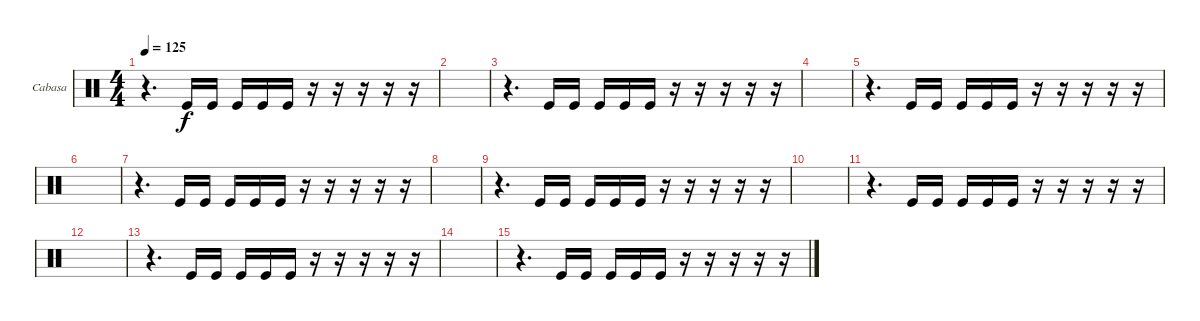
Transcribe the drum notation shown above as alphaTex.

\bracketExtendMode groupsimilarinstruments
\firstSystemTrackNameOrientation horizontal
\otherSystemsTrackNameOrientation horizontal
\track ("Cabasa" "Cabasa") {instrument percussion}
\staff {score}
\articulation defaults
\ts (4 4)
\tempo 125
\clef neutral
\ks c
r.4{d dy f} "Kick (hit)".16 "Kick (hit)".16 "Kick (hit)".16 "Kick (hit)".16 "Kick (hit)".16 r.16 r.16 r.16 r.16 r.16 |
|
r.4{d} "Kick (hit)".16 "Kick (hit)".16 "Kick (hit)".16 "Kick (hit)".16 "Kick (hit)".16 r.16 r.16 r.16 r.16 r.16 |
|
r.4{d} "Kick (hit)".16 "Kick (hit)".16 "Kick (hit)".16 "Kick (hit)".16 "Kick (hit)".16 r.16 r.16 r.16 r.16 r.16 |
|
r.4{d} "Kick (hit)".16 "Kick (hit)".16 "Kick (hit)".16 "Kick (hit)".16 "Kick (hit)".16 r.16 r.16 r.16 r.16 r.16 |
|
r.4{d} "Kick (hit)".16 "Kick (hit)".16 "Kick (hit)".16 "Kick (hit)".16 "Kick (hit)".16 r.16 r.16 r.16 r.16 r.16 |
|
r.4{d} "Kick (hit)".16 "Kick (hit)".16 "Kick (hit)".16 "Kick (hit)".16 "Kick (hit)".16 r.16 r.16 r.16 r.16 r.16 |
|
r.4{d} "Kick (hit)".16 "Kick (hit)".16 "Kick (hit)".16 "Kick (hit)".16 "Kick (hit)".16 r.16 r.16 r.16 r.16 r.16 |
|
r.4{d} "Kick (hit)".16 "Kick (hit)".16 "Kick (hit)".16 "Kick (hit)".16 "Kick (hit)".16 r.16 r.16 r.16 r.16 r.16
